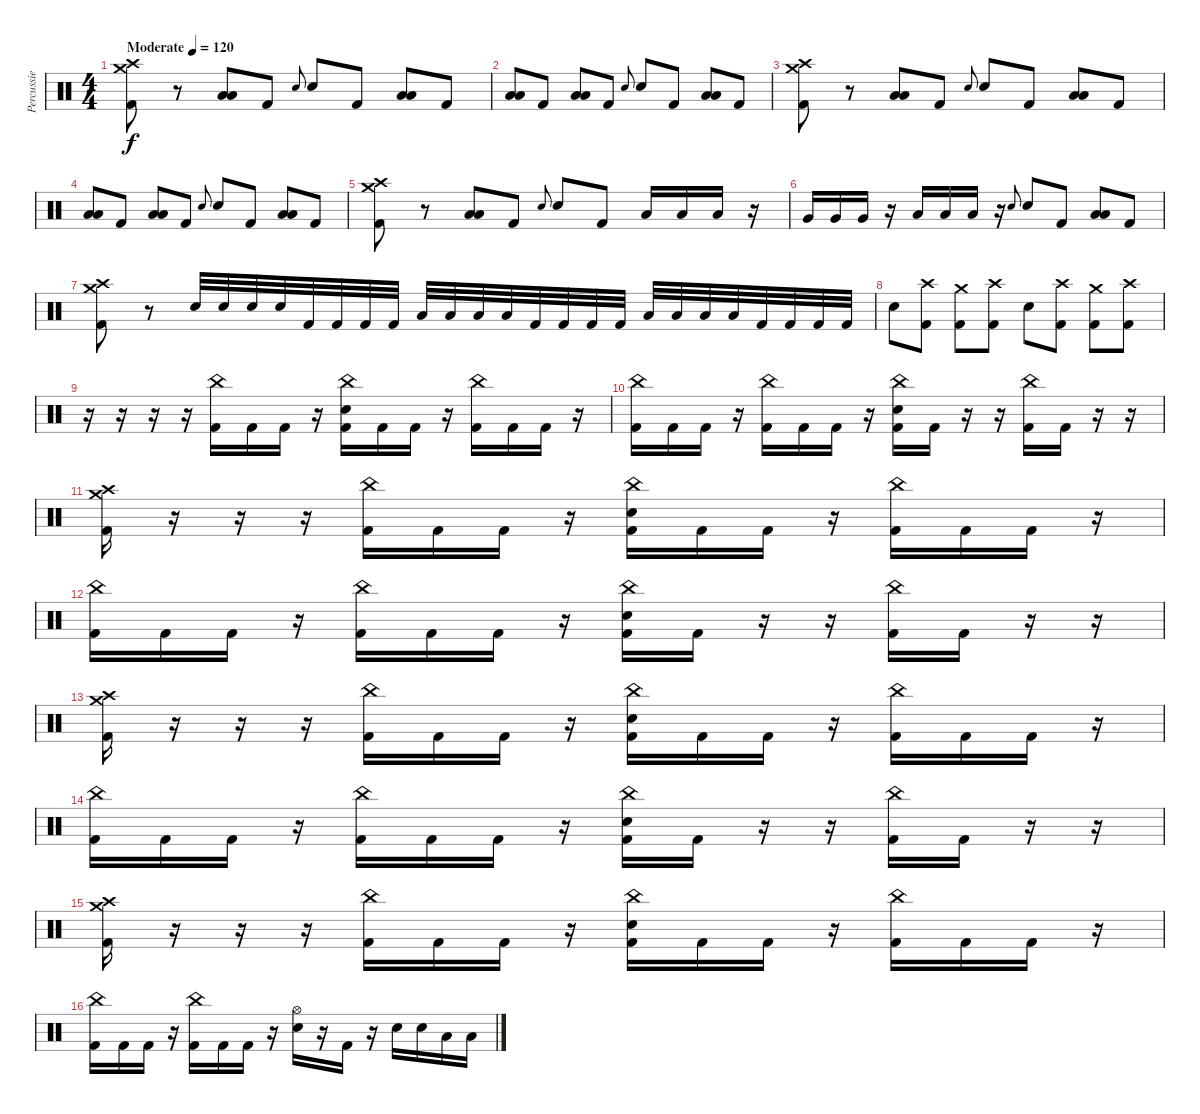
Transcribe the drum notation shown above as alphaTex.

\track ("Percussie" "Percussie") {instrument percussion}
\staff {score}
\articulation defaults
\ts (4 4)
\tempo (120 "Moderate")
\clef neutral
\ks c
("Crash medium (hit)" "Crash high (hit)" "Kick (hit) 2").8{dy f} r.8 ("Low Tom (hit)" "Low Floor Tom (hit)").8 "Kick (hit) 2".8 "Electric Snare (hit)".8{gr onbeat} "Electric Snare (hit)".8 "Kick (hit) 2".8 ("Low Tom (hit)" "Low Floor Tom (hit)").8 "Kick (hit) 2".8 |
("Low Tom (hit)" "Low Floor Tom (hit)").8 "Kick (hit) 2".8 ("Low Tom (hit)" "Low Floor Tom (hit)").8 "Kick (hit) 2".8 "Electric Snare (hit)".8{gr onbeat} "Electric Snare (hit)".8 "Kick (hit) 2".8 ("Low Tom (hit)" "Low Floor Tom (hit)").8 "Kick (hit) 2".8 |
("Crash medium (hit)" "Crash high (hit)" "Kick (hit) 2").8 r.8 ("Low Tom (hit)" "Low Floor Tom (hit)").8 "Kick (hit) 2".8 "Electric Snare (hit)".8{gr onbeat} "Electric Snare (hit)".8 "Kick (hit) 2".8 ("Low Tom (hit)" "Low Floor Tom (hit)").8 "Kick (hit) 2".8 |
("Low Tom (hit)" "Low Floor Tom (hit)").8 "Kick (hit) 2".8 ("Low Tom (hit)" "Low Floor Tom (hit)").8 "Kick (hit) 2".8 "Electric Snare (hit)".8{gr onbeat} "Electric Snare (hit)".8 "Kick (hit) 2".8 ("Low Tom (hit)" "Low Floor Tom (hit)").8 "Kick (hit) 2".8 |
("Crash medium (hit)" "Crash high (hit)" "Kick (hit) 2").8 r.8 ("Low Tom (hit)" "Low Floor Tom (hit)").8 "Kick (hit) 2".8 "Electric Snare (hit)".8{gr onbeat} "Electric Snare (hit)".8 "Kick (hit) 2".8 "Low Tom (hit)".16 "Low Tom (hit)".16 "Low Tom (hit)".16 r.16 |
"Very Low Tom (hit)".16 "Very Low Tom (hit)".16 "Very Low Tom (hit)".16 r.16 "Low Floor Tom (hit)".16 "Low Floor Tom (hit)".16 "Low Floor Tom (hit)".16 r.16 "Electric Snare (hit)".8{gr onbeat} "Electric Snare (hit)".8 "Kick (hit) 2".8 ("Low Tom (hit)" "Low Floor Tom (hit)").8 "Kick (hit) 2".8 |
("Crash medium (hit)" "Crash high (hit)" "Kick (hit) 2").8 r.8 "Electric Snare (hit)".32 "Electric Snare (hit)".32 "Electric Snare (hit)".32 "Electric Snare (hit)".32 "Kick (hit) 2".32 "Kick (hit) 2".32 "Kick (hit) 2".32 "Kick (hit) 2".32 "Low Tom (hit)".32 "Low Tom (hit)".32 "Low Tom (hit)".32 "Low Tom (hit)".32 "Kick (hit) 2".32 "Kick (hit) 2".32 "Kick (hit) 2".32 "Kick (hit) 2".32 "Low Floor Tom (hit)".32 "Low Floor Tom (hit)".32 "Low Floor Tom (hit)".32 "Low Floor Tom (hit)".32 "Kick (hit) 2".32 "Kick (hit) 2".32 "Kick (hit) 2".32 "Kick (hit) 2".32 |
"Electric Snare (hit)".8 ("Crash high (hit)" "Kick (hit) 2").8 ("Crash medium (hit)" "Kick (hit) 2").8 ("Crash high (hit)" "Kick (hit) 2").8 "Electric Snare (hit)".8 ("Crash high (hit)" "Kick (hit) 2").8 ("Crash medium (hit)" "Kick (hit) 2").8 ("Crash high (hit)" "Kick (hit) 2").8 |
r.16 r.16 r.16 r.16 ("China (hit)" "Kick (hit) 2").16 "Kick (hit) 2".16 "Kick (hit) 2".16 r.16 ("China (hit)" "Electric Snare (hit)" "Kick (hit) 2").16 "Kick (hit) 2".16 "Kick (hit) 2".16 r.16 ("China (hit)" "Kick (hit) 2").16 "Kick (hit) 2".16 "Kick (hit) 2".16 r.16 |
("China (hit)" "Kick (hit) 2").16 "Kick (hit) 2".16 "Kick (hit) 2".16 r.16 ("China (hit)" "Kick (hit) 2").16 "Kick (hit) 2".16 "Kick (hit) 2".16 r.16 ("China (hit)" "Electric Snare (hit)" "Kick (hit) 2").16 "Kick (hit) 2".16 r.16 r.16 ("China (hit)" "Kick (hit) 2").16 "Kick (hit) 2".16 r.16 r.16 |
("Crash medium (hit)" "Crash high (hit)" "Kick (hit) 2").16 r.16 r.16 r.16 ("China (hit)" "Kick (hit) 2").16 "Kick (hit) 2".16 "Kick (hit) 2".16 r.16 ("China (hit)" "Electric Snare (hit)" "Kick (hit) 2").16 "Kick (hit) 2".16 "Kick (hit) 2".16 r.16 ("China (hit)" "Kick (hit) 2").16 "Kick (hit) 2".16 "Kick (hit) 2".16 r.16 |
("China (hit)" "Kick (hit) 2").16 "Kick (hit) 2".16 "Kick (hit) 2".16 r.16 ("China (hit)" "Kick (hit) 2").16 "Kick (hit) 2".16 "Kick (hit) 2".16 r.16 ("China (hit)" "Electric Snare (hit)" "Kick (hit) 2").16 "Kick (hit) 2".16 r.16 r.16 ("China (hit)" "Kick (hit) 2").16 "Kick (hit) 2".16 r.16 r.16 |
("Crash medium (hit)" "Crash high (hit)" "Kick (hit) 2").16 r.16 r.16 r.16 ("China (hit)" "Kick (hit) 2").16 "Kick (hit) 2".16 "Kick (hit) 2".16 r.16 ("China (hit)" "Electric Snare (hit)" "Kick (hit) 2").16 "Kick (hit) 2".16 "Kick (hit) 2".16 r.16 ("China (hit)" "Kick (hit) 2").16 "Kick (hit) 2".16 "Kick (hit) 2".16 r.16 |
("China (hit)" "Kick (hit) 2").16 "Kick (hit) 2".16 "Kick (hit) 2".16 r.16 ("China (hit)" "Kick (hit) 2").16 "Kick (hit) 2".16 "Kick (hit) 2".16 r.16 ("China (hit)" "Electric Snare (hit)" "Kick (hit) 2").16 "Kick (hit) 2".16 r.16 r.16 ("China (hit)" "Kick (hit) 2").16 "Kick (hit) 2".16 r.16 r.16 |
("Crash medium (hit)" "Crash high (hit)" "Kick (hit) 2").16 r.16 r.16 r.16 ("China (hit)" "Kick (hit) 2").16 "Kick (hit) 2".16 "Kick (hit) 2".16 r.16 ("China (hit)" "Electric Snare (hit)" "Kick (hit) 2").16 "Kick (hit) 2".16 "Kick (hit) 2".16 r.16 ("China (hit)" "Kick (hit) 2").16 "Kick (hit) 2".16 "Kick (hit) 2".16 r.16 |
("China (hit)" "Kick (hit) 2").16 "Kick (hit) 2".16 "Kick (hit) 2".16 r.16 ("China (hit)" "Kick (hit) 2").16 "Kick (hit) 2".16 "Kick (hit) 2".16 r.16 ("Hi-Hat (open)" "Electric Snare (hit)").16 r.16 "Kick (hit) 2".16 r.16 "Electric Snare (hit)".16 "Electric Snare (hit)".16 "Low Tom (hit)".16 "Low Tom (hit)".16
